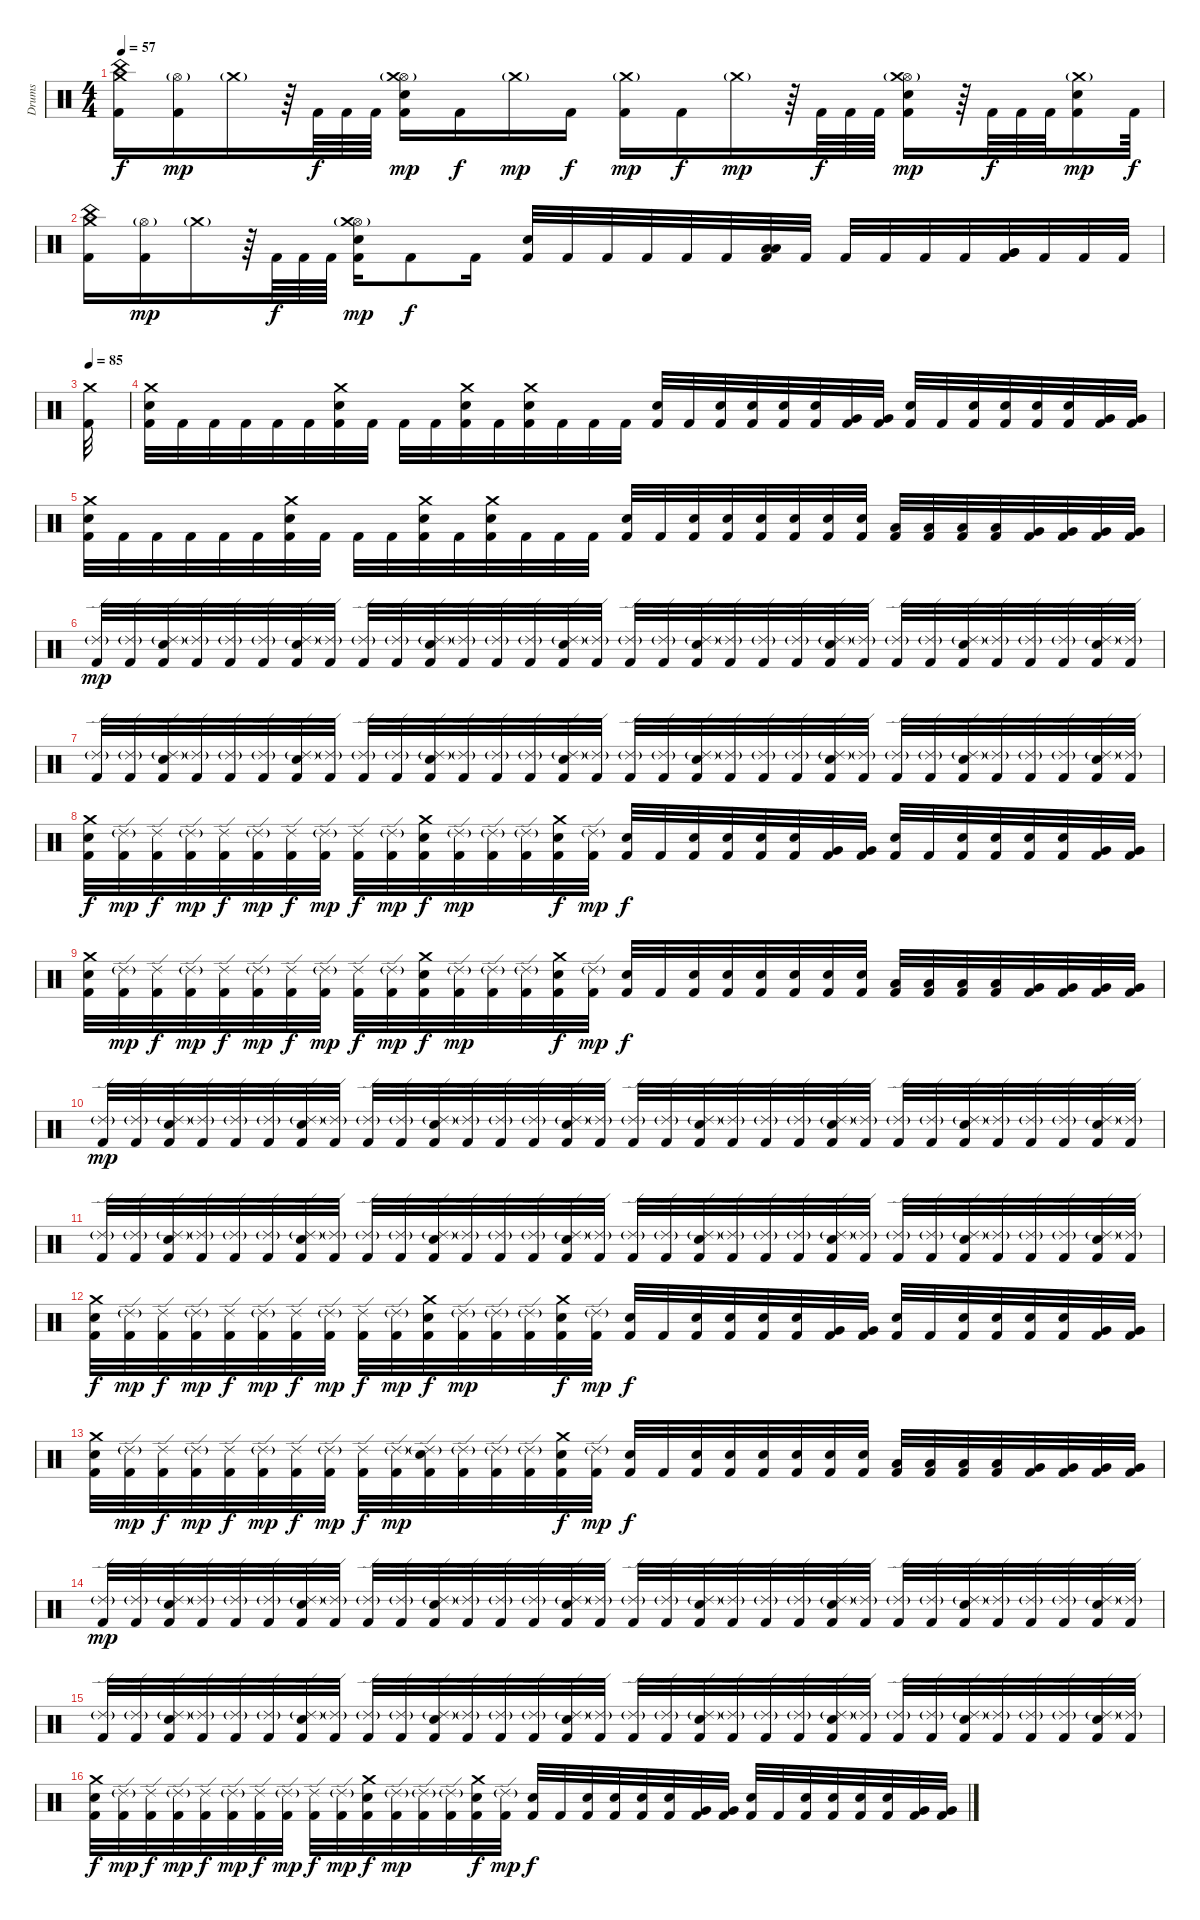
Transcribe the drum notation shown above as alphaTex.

\track ("Drums" "Drums") {instrument percussion}
\staff {score}
\articulation defaults
\ts (4 4)
\tempo 57
\clef neutral
\ks c
("Crash medium (hit)" "China (hit)" "Kick (hit) 2").16{dy f} ("Hi-Hat (open)"{g} "Kick (hit) 2").16{dy mp} "Crash medium (hit)"{g}.16 r.64 "Kick (hit) 2".64{dy f} "Kick (hit) 2".64 "Kick (hit) 2".64 ("Snare (hit) 2" "Hi-Hat (open)"{g} "Crash medium (hit)" "Kick (hit) 2").16{dy mp} "Kick (hit) 2".16{dy f} "Crash medium (hit)"{g}.16{dy mp} "Kick (hit) 2".16{dy f} ("Crash medium (hit)"{g} "Kick (hit) 2").16{dy mp} "Kick (hit) 2".16{dy f} "Crash medium (hit)"{g}.16{dy mp} r.64 "Kick (hit) 2".64{dy f} "Kick (hit) 2".64 "Kick (hit) 2".64 ("Snare (hit) 2" "Hi-Hat (open)"{g} "Crash medium (hit)"{g} "Kick (hit) 2").16{dy mp} r.64 "Kick (hit) 2".64{dy f} "Kick (hit) 2".64 "Kick (hit) 2".64 ("Snare (hit) 2" "Crash medium (hit)"{g} "Kick (hit) 2").16{dy mp} "Kick (hit) 2".64{dy f} |
("Crash medium (hit)" "China (hit)" "Kick (hit) 2").16 ("Hi-Hat (open)"{g} "Kick (hit) 2").16{dy mp} "Crash medium (hit)"{g}.16 r.64 "Kick (hit) 2".64{dy f} "Kick (hit) 2".64 "Kick (hit) 2".64 ("Snare (hit) 2" "Hi-Hat (open)"{g} "Crash medium (hit)" "Kick (hit) 2").16{dy mp} "Kick (hit) 2".8{dy f} "Kick (hit) 2".16 ("Snare (hit) 2" "Kick (hit) 2").32 "Kick (hit) 2".32 "Kick (hit) 2".32 "Kick (hit) 2".32 "Kick (hit) 2".32 "Kick (hit) 2".32 ("Low Tom (hit)" "Low Tom (hit)" "Kick (hit) 2").32 "Kick (hit) 2".32 "Kick (hit) 2".32 "Kick (hit) 2".32 "Kick (hit) 2".32 "Kick (hit) 2".32 ("Very Low Tom (hit)" "Very Low Tom (hit)" "Kick (hit) 2").32 "Kick (hit) 2".32 "Kick (hit) 2".32 "Kick (hit) 2".32 |
\tempo 85
("Crash medium (hit)" "Kick (hit) 2").32 |
("Snare (hit) 2" "Crash medium (hit)" "Kick (hit) 2").32 "Kick (hit) 2".32 "Kick (hit) 2".32 "Kick (hit) 2".32 "Kick (hit) 2".32 "Kick (hit) 2".32 ("Snare (hit) 2" "Crash medium (hit)" "Kick (hit) 2").32 "Kick (hit) 2".32 "Kick (hit) 2".32 "Kick (hit) 2".32 ("Snare (hit) 2" "Crash medium (hit)" "Kick (hit) 2").32 "Kick (hit) 2".32 ("Snare (hit) 2" "Crash medium (hit)" "Kick (hit) 2").32 "Kick (hit) 2".32 "Kick (hit) 2".32 "Kick (hit) 2".32 ("Snare (hit) 2" "Kick (hit) 2").32 "Kick (hit) 2".32 ("Snare (hit) 2" "Kick (hit) 2").32 ("Snare (hit) 2" "Kick (hit) 2").32 ("Snare (hit) 2" "Kick (hit) 2").32 ("Snare (hit) 2" "Kick (hit) 2").32 ("Very Low Tom (hit)" "Kick (hit) 2").32 ("Very Low Tom (hit)" "Kick (hit) 2").32 ("Snare (hit) 2" "Kick (hit) 2").32 "Kick (hit) 2".32 ("Snare (hit) 2" "Kick (hit) 2").32 ("Snare (hit) 2" "Kick (hit) 2").32 ("Snare (hit) 2" "Kick (hit) 2").32 ("Snare (hit) 2" "Kick (hit) 2").32 ("Very Low Tom (hit)" "Kick (hit) 2").32 ("Very Low Tom (hit)" "Kick (hit) 2").32 |
("Snare (hit) 2" "Crash medium (hit)" "Kick (hit) 2").32 "Kick (hit) 2".32 "Kick (hit) 2".32 "Kick (hit) 2".32 "Kick (hit) 2".32 "Kick (hit) 2".32 ("Snare (hit) 2" "Crash medium (hit)" "Kick (hit) 2").32 "Kick (hit) 2".32 "Kick (hit) 2".32 "Kick (hit) 2".32 ("Snare (hit) 2" "Crash medium (hit)" "Kick (hit) 2").32 "Kick (hit) 2".32 ("Snare (hit) 2" "Crash medium (hit)" "Kick (hit) 2").32 "Kick (hit) 2".32 "Kick (hit) 2".32 "Kick (hit) 2".32 ("Snare (hit) 2" "Kick (hit) 2").32 "Kick (hit) 2".32 ("Snare (hit) 2" "Kick (hit) 2").32 ("Snare (hit) 2" "Kick (hit) 2").32 ("Snare (hit) 2" "Kick (hit) 2").32 ("Snare (hit) 2" "Kick (hit) 2").32 ("Snare (hit) 2" "Kick (hit) 2").32 ("Snare (hit) 2" "Kick (hit) 2").32 ("Low Tom (hit)" "Kick (hit) 2").32 ("Low Tom (hit)" "Kick (hit) 2").32 ("Low Tom (hit)" "Kick (hit) 2").32 ("Low Tom (hit)" "Kick (hit) 2").32 ("Very Low Tom (hit)" "Kick (hit) 2").32 ("Very Low Tom (hit)" "Kick (hit) 2").32 ("Very Low Tom (hit)" "Kick (hit) 2").32 ("Very Low Tom (hit)" "Kick (hit) 2").32 |
("Ride (edge) 2"{g} "Kick (hit) 2").32{dy mp} ("Ride (edge) 2"{g} "Kick (hit) 2").32 ("Snare (hit) 2" "Ride (edge) 2"{g} "Kick (hit) 2").32 ("Ride (edge) 2"{g} "Kick (hit) 2").32 ("Ride (edge) 2"{g} "Kick (hit) 2").32 ("Ride (edge) 2"{g} "Kick (hit) 2").32 ("Snare (hit) 2" "Ride (edge) 2"{g} "Kick (hit) 2").32 ("Ride (edge) 2"{g} "Kick (hit) 2").32 ("Ride (edge) 2"{g} "Kick (hit) 2").32 ("Ride (edge) 2"{g} "Kick (hit) 2").32 ("Snare (hit) 2" "Ride (edge) 2"{g} "Kick (hit) 2").32 ("Ride (edge) 2"{g} "Kick (hit) 2").32 ("Ride (edge) 2"{g} "Kick (hit) 2").32 ("Ride (edge) 2"{g} "Kick (hit) 2").32 ("Snare (hit) 2" "Ride (edge) 2"{g} "Kick (hit) 2").32 ("Ride (edge) 2"{g} "Kick (hit) 2").32 ("Ride (edge) 2"{g} "Kick (hit) 2").32 ("Ride (edge) 2"{g} "Kick (hit) 2").32 ("Snare (hit) 2" "Ride (edge) 2"{g} "Kick (hit) 2").32 ("Ride (edge) 2"{g} "Kick (hit) 2").32 ("Ride (edge) 2"{g} "Kick (hit) 2").32 ("Ride (edge) 2"{g} "Kick (hit) 2").32 ("Snare (hit) 2" "Ride (edge) 2"{g} "Kick (hit) 2").32 ("Ride (edge) 2"{g} "Kick (hit) 2").32 ("Ride (edge) 2"{g} "Kick (hit) 2").32 ("Ride (edge) 2"{g} "Kick (hit) 2").32 ("Snare (hit) 2" "Ride (edge) 2"{g} "Kick (hit) 2").32 ("Ride (edge) 2"{g} "Kick (hit) 2").32 ("Ride (edge) 2"{g} "Kick (hit) 2").32 ("Ride (edge) 2"{g} "Kick (hit) 2").32 ("Snare (hit) 2" "Ride (edge) 2"{g} "Kick (hit) 2").32 ("Ride (edge) 2"{g} "Kick (hit) 2").32 |
("Ride (edge) 2"{g} "Kick (hit) 2").32 ("Ride (edge) 2"{g} "Kick (hit) 2").32 ("Snare (hit) 2" "Ride (edge) 2"{g} "Kick (hit) 2").32 ("Ride (edge) 2"{g} "Kick (hit) 2").32 ("Ride (edge) 2"{g} "Kick (hit) 2").32 ("Ride (edge) 2"{g} "Kick (hit) 2").32 ("Snare (hit) 2" "Ride (edge) 2"{g} "Kick (hit) 2").32 ("Ride (edge) 2"{g} "Kick (hit) 2").32 ("Ride (edge) 2"{g} "Kick (hit) 2").32 ("Ride (edge) 2"{g} "Kick (hit) 2").32 ("Snare (hit) 2" "Ride (edge) 2"{g} "Kick (hit) 2").32 ("Ride (edge) 2"{g} "Kick (hit) 2").32 ("Ride (edge) 2"{g} "Kick (hit) 2").32 ("Ride (edge) 2"{g} "Kick (hit) 2").32 ("Snare (hit) 2" "Ride (edge) 2"{g} "Kick (hit) 2").32 ("Ride (edge) 2"{g} "Kick (hit) 2").32 ("Ride (edge) 2"{g} "Kick (hit) 2").32 ("Ride (edge) 2"{g} "Kick (hit) 2").32 ("Snare (hit) 2" "Ride (edge) 2"{g} "Kick (hit) 2").32 ("Ride (edge) 2"{g} "Kick (hit) 2").32 ("Ride (edge) 2"{g} "Kick (hit) 2").32 ("Ride (edge) 2"{g} "Kick (hit) 2").32 ("Snare (hit) 2" "Ride (edge) 2"{g} "Kick (hit) 2").32 ("Ride (edge) 2"{g} "Kick (hit) 2").32 ("Ride (edge) 2"{g} "Kick (hit) 2").32 ("Ride (edge) 2"{g} "Kick (hit) 2").32 ("Snare (hit) 2" "Ride (edge) 2"{g} "Kick (hit) 2").32 ("Ride (edge) 2"{g} "Kick (hit) 2").32 ("Ride (edge) 2"{g} "Kick (hit) 2").32 ("Ride (edge) 2"{g} "Kick (hit) 2").32 ("Snare (hit) 2" "Ride (edge) 2"{g} "Kick (hit) 2").32 ("Ride (edge) 2"{g} "Kick (hit) 2").32 |
("Snare (hit) 2" "Crash medium (hit)" "Kick (hit) 2").32{dy f} ("Ride (edge) 2"{g} "Kick (hit) 2").32{dy mp} ("Ride (edge) 2" "Kick (hit) 2").32{dy f} ("Ride (edge) 2"{g} "Kick (hit) 2").32{dy mp} ("Ride (edge) 2" "Kick (hit) 2").32{dy f} ("Ride (edge) 2"{g} "Kick (hit) 2").32{dy mp} ("Ride (edge) 2" "Kick (hit) 2").32{dy f} ("Ride (edge) 2"{g} "Kick (hit) 2").32{dy mp} ("Ride (edge) 2" "Kick (hit) 2").32{dy f} ("Ride (edge) 2"{g} "Kick (hit) 2").32{dy mp} ("Snare (hit) 2" "Crash medium (hit)" "Kick (hit) 2").32{dy f} ("Ride (edge) 2"{g} "Kick (hit) 2").32{dy mp} ("Ride (edge) 2"{g} "Kick (hit) 2").32 ("Ride (edge) 2"{g} "Kick (hit) 2").32 ("Snare (hit) 2" "Crash medium (hit)" "Kick (hit) 2").32{dy f} ("Ride (edge) 2"{g} "Kick (hit) 2").32{dy mp} ("Snare (hit) 2" "Kick (hit) 2").32{dy f} "Kick (hit) 2".32 ("Snare (hit) 2" "Kick (hit) 2").32 ("Snare (hit) 2" "Kick (hit) 2").32 ("Snare (hit) 2" "Kick (hit) 2").32 ("Snare (hit) 2" "Kick (hit) 2").32 ("Very Low Tom (hit)" "Kick (hit) 2").32 ("Very Low Tom (hit)" "Kick (hit) 2").32 ("Snare (hit) 2" "Kick (hit) 2").32 "Kick (hit) 2".32 ("Snare (hit) 2" "Kick (hit) 2").32 ("Snare (hit) 2" "Kick (hit) 2").32 ("Snare (hit) 2" "Kick (hit) 2").32 ("Snare (hit) 2" "Kick (hit) 2").32 ("Very Low Tom (hit)" "Kick (hit) 2").32 ("Very Low Tom (hit)" "Kick (hit) 2").32 |
("Snare (hit) 2" "Crash medium (hit)" "Kick (hit) 2").32 ("Ride (edge) 2"{g} "Kick (hit) 2").32{dy mp} ("Ride (edge) 2" "Kick (hit) 2").32{dy f} ("Ride (edge) 2"{g} "Kick (hit) 2").32{dy mp} ("Ride (edge) 2" "Kick (hit) 2").32{dy f} ("Ride (edge) 2"{g} "Kick (hit) 2").32{dy mp} ("Ride (edge) 2" "Kick (hit) 2").32{dy f} ("Ride (edge) 2"{g} "Kick (hit) 2").32{dy mp} ("Ride (edge) 2" "Kick (hit) 2").32{dy f} ("Ride (edge) 2"{g} "Kick (hit) 2").32{dy mp} ("Snare (hit) 2" "Crash medium (hit)" "Kick (hit) 2").32{dy f} ("Ride (edge) 2"{g} "Kick (hit) 2").32{dy mp} ("Ride (edge) 2"{g} "Kick (hit) 2").32 ("Ride (edge) 2"{g} "Kick (hit) 2").32 ("Snare (hit) 2" "Crash medium (hit)" "Kick (hit) 2").32{dy f} ("Ride (edge) 2"{g} "Kick (hit) 2").32{dy mp} ("Snare (hit) 2" "Kick (hit) 2").32{dy f} "Kick (hit) 2".32 ("Snare (hit) 2" "Kick (hit) 2").32 ("Snare (hit) 2" "Kick (hit) 2").32 ("Snare (hit) 2" "Kick (hit) 2").32 ("Snare (hit) 2" "Kick (hit) 2").32 ("Snare (hit) 2" "Kick (hit) 2").32 ("Snare (hit) 2" "Kick (hit) 2").32 ("Low Tom (hit)" "Kick (hit) 2").32 ("Low Tom (hit)" "Kick (hit) 2").32 ("Low Tom (hit)" "Kick (hit) 2").32 ("Low Tom (hit)" "Kick (hit) 2").32 ("Very Low Tom (hit)" "Kick (hit) 2").32 ("Very Low Tom (hit)" "Kick (hit) 2").32 ("Very Low Tom (hit)" "Kick (hit) 2").32 ("Very Low Tom (hit)" "Kick (hit) 2").32 |
("Ride (edge) 2"{g} "Kick (hit) 2").32{dy mp} ("Ride (edge) 2"{g} "Kick (hit) 2").32 ("Snare (hit) 2" "Ride (edge) 2"{g} "Kick (hit) 2").32 ("Ride (edge) 2"{g} "Kick (hit) 2").32 ("Ride (edge) 2"{g} "Kick (hit) 2").32 ("Ride (edge) 2"{g} "Kick (hit) 2").32 ("Snare (hit) 2" "Ride (edge) 2"{g} "Kick (hit) 2").32 ("Ride (edge) 2"{g} "Kick (hit) 2").32 ("Ride (edge) 2"{g} "Kick (hit) 2").32 ("Ride (edge) 2"{g} "Kick (hit) 2").32 ("Snare (hit) 2" "Ride (edge) 2"{g} "Kick (hit) 2").32 ("Ride (edge) 2"{g} "Kick (hit) 2").32 ("Ride (edge) 2"{g} "Kick (hit) 2").32 ("Ride (edge) 2"{g} "Kick (hit) 2").32 ("Snare (hit) 2" "Ride (edge) 2"{g} "Kick (hit) 2").32 ("Ride (edge) 2"{g} "Kick (hit) 2").32 ("Ride (edge) 2"{g} "Kick (hit) 2").32 ("Ride (edge) 2"{g} "Kick (hit) 2").32 ("Snare (hit) 2" "Ride (edge) 2"{g} "Kick (hit) 2").32 ("Ride (edge) 2"{g} "Kick (hit) 2").32 ("Ride (edge) 2"{g} "Kick (hit) 2").32 ("Ride (edge) 2"{g} "Kick (hit) 2").32 ("Snare (hit) 2" "Ride (edge) 2"{g} "Kick (hit) 2").32 ("Ride (edge) 2"{g} "Kick (hit) 2").32 ("Ride (edge) 2"{g} "Kick (hit) 2").32 ("Ride (edge) 2"{g} "Kick (hit) 2").32 ("Snare (hit) 2" "Ride (edge) 2"{g} "Kick (hit) 2").32 ("Ride (edge) 2"{g} "Kick (hit) 2").32 ("Ride (edge) 2"{g} "Kick (hit) 2").32 ("Ride (edge) 2"{g} "Kick (hit) 2").32 ("Snare (hit) 2" "Ride (edge) 2"{g} "Kick (hit) 2").32 ("Ride (edge) 2"{g} "Kick (hit) 2").32 |
("Ride (edge) 2"{g} "Kick (hit) 2").32 ("Ride (edge) 2"{g} "Kick (hit) 2").32 ("Snare (hit) 2" "Ride (edge) 2"{g} "Kick (hit) 2").32 ("Ride (edge) 2"{g} "Kick (hit) 2").32 ("Ride (edge) 2"{g} "Kick (hit) 2").32 ("Ride (edge) 2"{g} "Kick (hit) 2").32 ("Snare (hit) 2" "Ride (edge) 2"{g} "Kick (hit) 2").32 ("Ride (edge) 2"{g} "Kick (hit) 2").32 ("Ride (edge) 2"{g} "Kick (hit) 2").32 ("Ride (edge) 2"{g} "Kick (hit) 2").32 ("Snare (hit) 2" "Ride (edge) 2"{g} "Kick (hit) 2").32 ("Ride (edge) 2"{g} "Kick (hit) 2").32 ("Ride (edge) 2"{g} "Kick (hit) 2").32 ("Ride (edge) 2"{g} "Kick (hit) 2").32 ("Snare (hit) 2" "Ride (edge) 2"{g} "Kick (hit) 2").32 ("Ride (edge) 2"{g} "Kick (hit) 2").32 ("Ride (edge) 2"{g} "Kick (hit) 2").32 ("Ride (edge) 2"{g} "Kick (hit) 2").32 ("Snare (hit) 2" "Ride (edge) 2"{g} "Kick (hit) 2").32 ("Ride (edge) 2"{g} "Kick (hit) 2").32 ("Ride (edge) 2"{g} "Kick (hit) 2").32 ("Ride (edge) 2"{g} "Kick (hit) 2").32 ("Snare (hit) 2" "Ride (edge) 2"{g} "Kick (hit) 2").32 ("Ride (edge) 2"{g} "Kick (hit) 2").32 ("Ride (edge) 2"{g} "Kick (hit) 2").32 ("Ride (edge) 2"{g} "Kick (hit) 2").32 ("Snare (hit) 2" "Ride (edge) 2"{g} "Kick (hit) 2").32 ("Ride (edge) 2"{g} "Kick (hit) 2").32 ("Ride (edge) 2"{g} "Kick (hit) 2").32 ("Ride (edge) 2"{g} "Kick (hit) 2").32 ("Snare (hit) 2" "Ride (edge) 2"{g} "Kick (hit) 2").32 ("Ride (edge) 2"{g} "Kick (hit) 2").32 |
("Snare (hit) 2" "Crash medium (hit)" "Kick (hit) 2").32{dy f} ("Ride (edge) 2"{g} "Kick (hit) 2").32{dy mp} ("Ride (edge) 2" "Kick (hit) 2").32{dy f} ("Ride (edge) 2"{g} "Kick (hit) 2").32{dy mp} ("Ride (edge) 2" "Kick (hit) 2").32{dy f} ("Ride (edge) 2"{g} "Kick (hit) 2").32{dy mp} ("Ride (edge) 2" "Kick (hit) 2").32{dy f} ("Ride (edge) 2"{g} "Kick (hit) 2").32{dy mp} ("Ride (edge) 2" "Kick (hit) 2").32{dy f} ("Ride (edge) 2"{g} "Kick (hit) 2").32{dy mp} ("Snare (hit) 2" "Crash medium (hit)" "Kick (hit) 2").32{dy f} ("Ride (edge) 2"{g} "Kick (hit) 2").32{dy mp} ("Ride (edge) 2"{g} "Kick (hit) 2").32 ("Ride (edge) 2"{g} "Kick (hit) 2").32 ("Snare (hit) 2" "Crash medium (hit)" "Kick (hit) 2").32{dy f} ("Ride (edge) 2"{g} "Kick (hit) 2").32{dy mp} ("Snare (hit) 2" "Kick (hit) 2").32{dy f} "Kick (hit) 2".32 ("Snare (hit) 2" "Kick (hit) 2").32 ("Snare (hit) 2" "Kick (hit) 2").32 ("Snare (hit) 2" "Kick (hit) 2").32 ("Snare (hit) 2" "Kick (hit) 2").32 ("Very Low Tom (hit)" "Kick (hit) 2").32 ("Very Low Tom (hit)" "Kick (hit) 2").32 ("Snare (hit) 2" "Kick (hit) 2").32 "Kick (hit) 2".32 ("Snare (hit) 2" "Kick (hit) 2").32 ("Snare (hit) 2" "Kick (hit) 2").32 ("Snare (hit) 2" "Kick (hit) 2").32 ("Snare (hit) 2" "Kick (hit) 2").32 ("Very Low Tom (hit)" "Kick (hit) 2").32 ("Very Low Tom (hit)" "Kick (hit) 2").32 |
("Snare (hit) 2" "Crash medium (hit)" "Kick (hit) 2").32 ("Ride (edge) 2"{g} "Kick (hit) 2").32{dy mp} ("Ride (edge) 2" "Kick (hit) 2").32{dy f} ("Ride (edge) 2"{g} "Kick (hit) 2").32{dy mp} ("Ride (edge) 2" "Kick (hit) 2").32{dy f} ("Ride (edge) 2"{g} "Kick (hit) 2").32{dy mp} ("Ride (edge) 2" "Kick (hit) 2").32{dy f} ("Ride (edge) 2"{g} "Kick (hit) 2").32{dy mp} ("Ride (edge) 2" "Kick (hit) 2").32{dy f} ("Ride (edge) 2"{g} "Kick (hit) 2").32{dy mp} ("Snare (hit) 2" "Ride (edge) 2"{g} "Kick (hit) 2").32 ("Ride (edge) 2"{g} "Kick (hit) 2").32 ("Ride (edge) 2"{g} "Kick (hit) 2").32 ("Ride (edge) 2"{g} "Kick (hit) 2").32 ("Snare (hit) 2" "Crash medium (hit)" "Kick (hit) 2").32{dy f} ("Ride (edge) 2"{g} "Kick (hit) 2").32{dy mp} ("Snare (hit) 2" "Kick (hit) 2").32{dy f} "Kick (hit) 2".32 ("Snare (hit) 2" "Kick (hit) 2").32 ("Snare (hit) 2" "Kick (hit) 2").32 ("Snare (hit) 2" "Kick (hit) 2").32 ("Snare (hit) 2" "Kick (hit) 2").32 ("Snare (hit) 2" "Kick (hit) 2").32 ("Snare (hit) 2" "Kick (hit) 2").32 ("Low Tom (hit)" "Kick (hit) 2").32 ("Low Tom (hit)" "Kick (hit) 2").32 ("Low Tom (hit)" "Kick (hit) 2").32 ("Low Tom (hit)" "Kick (hit) 2").32 ("Very Low Tom (hit)" "Kick (hit) 2").32 ("Very Low Tom (hit)" "Kick (hit) 2").32 ("Very Low Tom (hit)" "Kick (hit) 2").32 ("Very Low Tom (hit)" "Kick (hit) 2").32 |
("Ride (edge) 2"{g} "Kick (hit) 2").32{dy mp} ("Ride (edge) 2"{g} "Kick (hit) 2").32 ("Snare (hit) 2" "Ride (edge) 2"{g} "Kick (hit) 2").32 ("Ride (edge) 2"{g} "Kick (hit) 2").32 ("Ride (edge) 2"{g} "Kick (hit) 2").32 ("Ride (edge) 2"{g} "Kick (hit) 2").32 ("Snare (hit) 2" "Ride (edge) 2"{g} "Kick (hit) 2").32 ("Ride (edge) 2"{g} "Kick (hit) 2").32 ("Ride (edge) 2"{g} "Kick (hit) 2").32 ("Ride (edge) 2"{g} "Kick (hit) 2").32 ("Snare (hit) 2" "Ride (edge) 2"{g} "Kick (hit) 2").32 ("Ride (edge) 2"{g} "Kick (hit) 2").32 ("Ride (edge) 2"{g} "Kick (hit) 2").32 ("Ride (edge) 2"{g} "Kick (hit) 2").32 ("Snare (hit) 2" "Ride (edge) 2"{g} "Kick (hit) 2").32 ("Ride (edge) 2"{g} "Kick (hit) 2").32 ("Ride (edge) 2"{g} "Kick (hit) 2").32 ("Ride (edge) 2"{g} "Kick (hit) 2").32 ("Snare (hit) 2" "Ride (edge) 2"{g} "Kick (hit) 2").32 ("Ride (edge) 2"{g} "Kick (hit) 2").32 ("Ride (edge) 2"{g} "Kick (hit) 2").32 ("Ride (edge) 2"{g} "Kick (hit) 2").32 ("Snare (hit) 2" "Ride (edge) 2"{g} "Kick (hit) 2").32 ("Ride (edge) 2"{g} "Kick (hit) 2").32 ("Ride (edge) 2"{g} "Kick (hit) 2").32 ("Ride (edge) 2"{g} "Kick (hit) 2").32 ("Snare (hit) 2" "Ride (edge) 2"{g} "Kick (hit) 2").32 ("Ride (edge) 2"{g} "Kick (hit) 2").32 ("Ride (edge) 2"{g} "Kick (hit) 2").32 ("Ride (edge) 2"{g} "Kick (hit) 2").32 ("Snare (hit) 2" "Ride (edge) 2"{g} "Kick (hit) 2").32 ("Ride (edge) 2"{g} "Kick (hit) 2").32 |
("Ride (edge) 2"{g} "Kick (hit) 2").32 ("Ride (edge) 2"{g} "Kick (hit) 2").32 ("Snare (hit) 2" "Ride (edge) 2"{g} "Kick (hit) 2").32 ("Ride (edge) 2"{g} "Kick (hit) 2").32 ("Ride (edge) 2"{g} "Kick (hit) 2").32 ("Ride (edge) 2"{g} "Kick (hit) 2").32 ("Snare (hit) 2" "Ride (edge) 2"{g} "Kick (hit) 2").32 ("Ride (edge) 2"{g} "Kick (hit) 2").32 ("Ride (edge) 2"{g} "Kick (hit) 2").32 ("Ride (edge) 2"{g} "Kick (hit) 2").32 ("Snare (hit) 2" "Ride (edge) 2"{g} "Kick (hit) 2").32 ("Ride (edge) 2"{g} "Kick (hit) 2").32 ("Ride (edge) 2"{g} "Kick (hit) 2").32 ("Ride (edge) 2"{g} "Kick (hit) 2").32 ("Snare (hit) 2" "Ride (edge) 2"{g} "Kick (hit) 2").32 ("Ride (edge) 2"{g} "Kick (hit) 2").32 ("Ride (edge) 2"{g} "Kick (hit) 2").32 ("Ride (edge) 2"{g} "Kick (hit) 2").32 ("Snare (hit) 2" "Ride (edge) 2"{g} "Kick (hit) 2").32 ("Ride (edge) 2"{g} "Kick (hit) 2").32 ("Ride (edge) 2"{g} "Kick (hit) 2").32 ("Ride (edge) 2"{g} "Kick (hit) 2").32 ("Snare (hit) 2" "Ride (edge) 2"{g} "Kick (hit) 2").32 ("Ride (edge) 2"{g} "Kick (hit) 2").32 ("Ride (edge) 2"{g} "Kick (hit) 2").32 ("Ride (edge) 2"{g} "Kick (hit) 2").32 ("Snare (hit) 2" "Ride (edge) 2"{g} "Kick (hit) 2").32 ("Ride (edge) 2"{g} "Kick (hit) 2").32 ("Ride (edge) 2"{g} "Kick (hit) 2").32 ("Ride (edge) 2"{g} "Kick (hit) 2").32 ("Snare (hit) 2" "Ride (edge) 2"{g} "Kick (hit) 2").32 ("Ride (edge) 2"{g} "Kick (hit) 2").32 |
("Snare (hit) 2" "Crash medium (hit)" "Kick (hit) 2").32{dy f} ("Ride (edge) 2"{g} "Kick (hit) 2").32{dy mp} ("Ride (edge) 2" "Kick (hit) 2").32{dy f} ("Ride (edge) 2"{g} "Kick (hit) 2").32{dy mp} ("Ride (edge) 2" "Kick (hit) 2").32{dy f} ("Ride (edge) 2"{g} "Kick (hit) 2").32{dy mp} ("Ride (edge) 2" "Kick (hit) 2").32{dy f} ("Ride (edge) 2"{g} "Kick (hit) 2").32{dy mp} ("Ride (edge) 2" "Kick (hit) 2").32{dy f} ("Ride (edge) 2"{g} "Kick (hit) 2").32{dy mp} ("Snare (hit) 2" "Crash medium (hit)" "Kick (hit) 2").32{dy f} ("Ride (edge) 2"{g} "Kick (hit) 2").32{dy mp} ("Ride (edge) 2"{g} "Kick (hit) 2").32 ("Ride (edge) 2"{g} "Kick (hit) 2").32 ("Snare (hit) 2" "Crash medium (hit)" "Kick (hit) 2").32{dy f} ("Ride (edge) 2"{g} "Kick (hit) 2").32{dy mp} ("Snare (hit) 2" "Kick (hit) 2").32{dy f} "Kick (hit) 2".32 ("Snare (hit) 2" "Kick (hit) 2").32 ("Snare (hit) 2" "Kick (hit) 2").32 ("Snare (hit) 2" "Kick (hit) 2").32 ("Snare (hit) 2" "Kick (hit) 2").32 ("Very Low Tom (hit)" "Kick (hit) 2").32 ("Very Low Tom (hit)" "Kick (hit) 2").32 ("Snare (hit) 2" "Kick (hit) 2").32 "Kick (hit) 2".32 ("Snare (hit) 2" "Kick (hit) 2").32 ("Snare (hit) 2" "Kick (hit) 2").32 ("Snare (hit) 2" "Kick (hit) 2").32 ("Snare (hit) 2" "Kick (hit) 2").32 ("Very Low Tom (hit)" "Kick (hit) 2").32 ("Very Low Tom (hit)" "Kick (hit) 2").32
